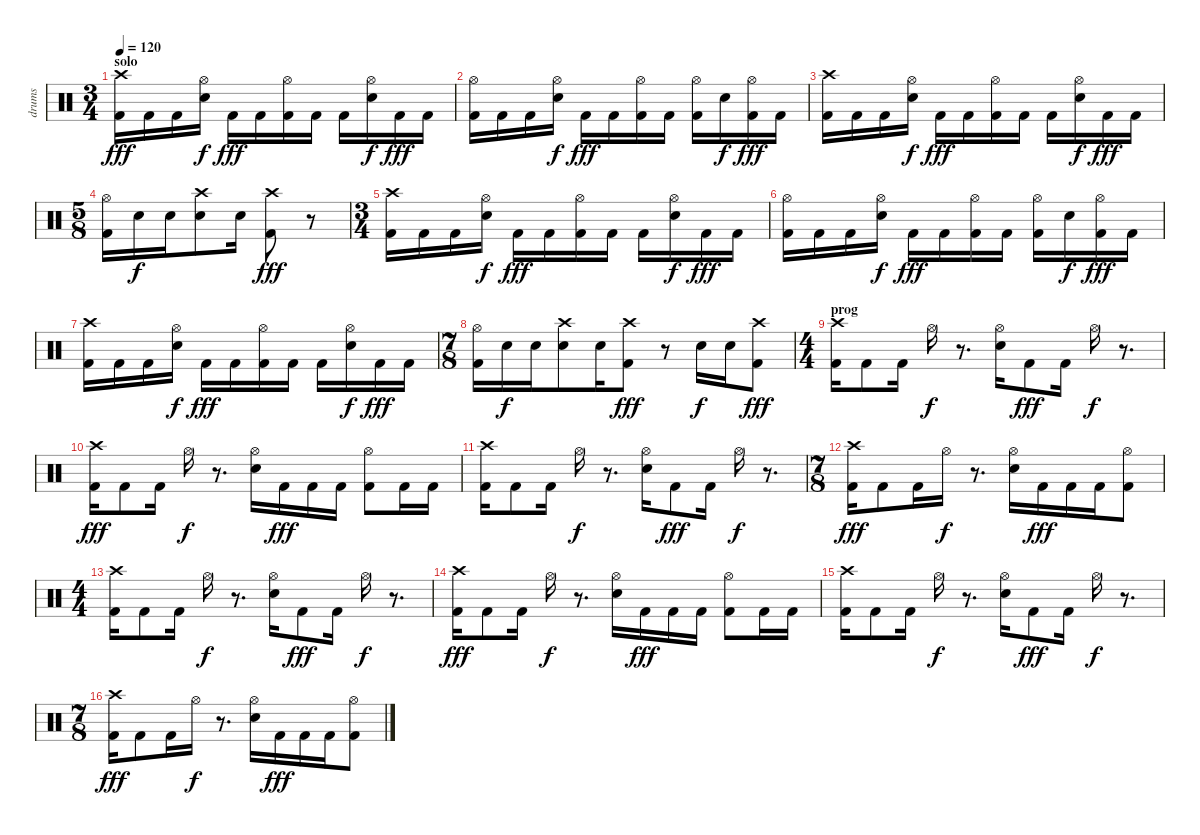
\track ("drums" "drums") {instrument percussion}
\staff {score}
\articulation defaults
\ts (3 4)
\section ("" "solo")
\tempo 120
\clef neutral
\ks c
("Crash high (hit)" "Kick (hit) 2").16{dy fff} "Kick (hit) 2".16 "Kick (hit) 2".16 ("Hi-Hat (open)" "Snare (hit) 2").16{dy f} "Kick (hit) 2".16{dy fff} "Kick (hit) 2".16 ("Hi-Hat (open)" "Kick (hit) 2").16 "Kick (hit) 2".16 "Kick (hit) 2".16 ("Hi-Hat (open)" "Snare (hit) 2").16{dy f} "Kick (hit) 2".16{dy fff} "Kick (hit) 2".16 |
("Hi-Hat (open)" "Kick (hit) 2").16 "Kick (hit) 2".16 "Kick (hit) 2".16 ("Hi-Hat (open)" "Snare (hit) 2").16{dy f} "Kick (hit) 2".16{dy fff} "Kick (hit) 2".16 ("Hi-Hat (open)" "Kick (hit) 2").16 "Kick (hit) 2".16 ("Hi-Hat (open)" "Kick (hit) 2").16 "Snare (hit) 2".16{dy f} ("Hi-Hat (open)" "Kick (hit) 2").16{dy fff} "Kick (hit) 2".16 |
("Crash high (hit)" "Kick (hit) 2").16 "Kick (hit) 2".16 "Kick (hit) 2".16 ("Hi-Hat (open)" "Snare (hit) 2").16{dy f} "Kick (hit) 2".16{dy fff} "Kick (hit) 2".16 ("Hi-Hat (open)" "Kick (hit) 2").16 "Kick (hit) 2".16 "Kick (hit) 2".16 ("Hi-Hat (open)" "Snare (hit) 2").16{dy f} "Kick (hit) 2".16{dy fff} "Kick (hit) 2".16 |
\ts (5 8)
("Hi-Hat (open)" "Kick (hit) 2").16 "Snare (hit) 2".16{dy f} "Snare (hit) 2".16 ("Crash high (hit)" "Snare (hit) 2").8 "Snare (hit) 2".16 ("Crash high (hit)" "Kick (hit) 2").8{dy fff} r.8 |
\ts (3 4)
("Crash high (hit)" "Kick (hit) 2").16 "Kick (hit) 2".16 "Kick (hit) 2".16 ("Hi-Hat (open)" "Snare (hit) 2").16{dy f} "Kick (hit) 2".16{dy fff} "Kick (hit) 2".16 ("Hi-Hat (open)" "Kick (hit) 2").16 "Kick (hit) 2".16 "Kick (hit) 2".16 ("Hi-Hat (open)" "Snare (hit) 2").16{dy f} "Kick (hit) 2".16{dy fff} "Kick (hit) 2".16 |
("Hi-Hat (open)" "Kick (hit) 2").16 "Kick (hit) 2".16 "Kick (hit) 2".16 ("Hi-Hat (open)" "Snare (hit) 2").16{dy f} "Kick (hit) 2".16{dy fff} "Kick (hit) 2".16 ("Hi-Hat (open)" "Kick (hit) 2").16 "Kick (hit) 2".16 ("Hi-Hat (open)" "Kick (hit) 2").16 "Snare (hit) 2".16{dy f} ("Hi-Hat (open)" "Kick (hit) 2").16{dy fff} "Kick (hit) 2".16 |
("Crash high (hit)" "Kick (hit) 2").16 "Kick (hit) 2".16 "Kick (hit) 2".16 ("Hi-Hat (open)" "Snare (hit) 2").16{dy f} "Kick (hit) 2".16{dy fff} "Kick (hit) 2".16 ("Hi-Hat (open)" "Kick (hit) 2").16 "Kick (hit) 2".16 "Kick (hit) 2".16 ("Hi-Hat (open)" "Snare (hit) 2").16{dy f} "Kick (hit) 2".16{dy fff} "Kick (hit) 2".16 |
\ts (7 8)
("Hi-Hat (open)" "Kick (hit) 2").16 "Snare (hit) 2".16{dy f} "Snare (hit) 2".16 ("Crash high (hit)" "Snare (hit) 2").8 "Snare (hit) 2".16 ("Crash high (hit)" "Kick (hit) 2").8{dy fff} r.8 "Snare (hit) 2".16{dy f} "Snare (hit) 2".16 ("Crash high (hit)" "Kick (hit) 2").8{dy fff} |
\ts (4 4)
\section ("" "prog")
("Crash high (hit)" "Kick (hit) 2").16 "Kick (hit) 2".8 "Kick (hit) 2".16 "Hi-Hat (open)".16{dy f} r.8{d} ("Hi-Hat (open)" "Snare (hit) 2").16 "Kick (hit) 2".8{dy fff} "Kick (hit) 2".16 "Hi-Hat (open)".16{dy f} r.8{d} |
("Crash high (hit)" "Kick (hit) 2").16{dy fff} "Kick (hit) 2".8 "Kick (hit) 2".16 "Hi-Hat (open)".16{dy f} r.8{d} ("Hi-Hat (open)" "Snare (hit) 2").16 "Kick (hit) 2".16{dy fff} "Kick (hit) 2".16 "Kick (hit) 2".16 ("Hi-Hat (open)" "Kick (hit) 2").8 "Kick (hit) 2".16 "Kick (hit) 2".16 |
("Crash high (hit)" "Kick (hit) 2").16 "Kick (hit) 2".8 "Kick (hit) 2".16 "Hi-Hat (open)".16{dy f} r.8{d} ("Hi-Hat (open)" "Snare (hit) 2").16 "Kick (hit) 2".8{dy fff} "Kick (hit) 2".16 "Hi-Hat (open)".16{dy f} r.8{d} |
\ts (7 8)
("Crash high (hit)" "Kick (hit) 2").16{dy fff} "Kick (hit) 2".8 "Kick (hit) 2".16 "Hi-Hat (open)".16{dy f} r.8{d} ("Hi-Hat (open)" "Snare (hit) 2").16 "Kick (hit) 2".16{dy fff} "Kick (hit) 2".16 "Kick (hit) 2".16 ("Hi-Hat (open)" "Kick (hit) 2").8 |
\ts (4 4)
("Crash high (hit)" "Kick (hit) 2").16 "Kick (hit) 2".8 "Kick (hit) 2".16 "Hi-Hat (open)".16{dy f} r.8{d} ("Hi-Hat (open)" "Snare (hit) 2").16 "Kick (hit) 2".8{dy fff} "Kick (hit) 2".16 "Hi-Hat (open)".16{dy f} r.8{d} |
("Crash high (hit)" "Kick (hit) 2").16{dy fff} "Kick (hit) 2".8 "Kick (hit) 2".16 "Hi-Hat (open)".16{dy f} r.8{d} ("Hi-Hat (open)" "Snare (hit) 2").16 "Kick (hit) 2".16{dy fff} "Kick (hit) 2".16 "Kick (hit) 2".16 ("Hi-Hat (open)" "Kick (hit) 2").8 "Kick (hit) 2".16 "Kick (hit) 2".16 |
("Crash high (hit)" "Kick (hit) 2").16 "Kick (hit) 2".8 "Kick (hit) 2".16 "Hi-Hat (open)".16{dy f} r.8{d} ("Hi-Hat (open)" "Snare (hit) 2").16 "Kick (hit) 2".8{dy fff} "Kick (hit) 2".16 "Hi-Hat (open)".16{dy f} r.8{d} |
\ts (7 8)
("Crash high (hit)" "Kick (hit) 2").16{dy fff} "Kick (hit) 2".8 "Kick (hit) 2".16 "Hi-Hat (open)".16{dy f} r.8{d} ("Hi-Hat (open)" "Snare (hit) 2").16 "Kick (hit) 2".16{dy fff} "Kick (hit) 2".16 "Kick (hit) 2".16 ("Hi-Hat (open)" "Kick (hit) 2").8
